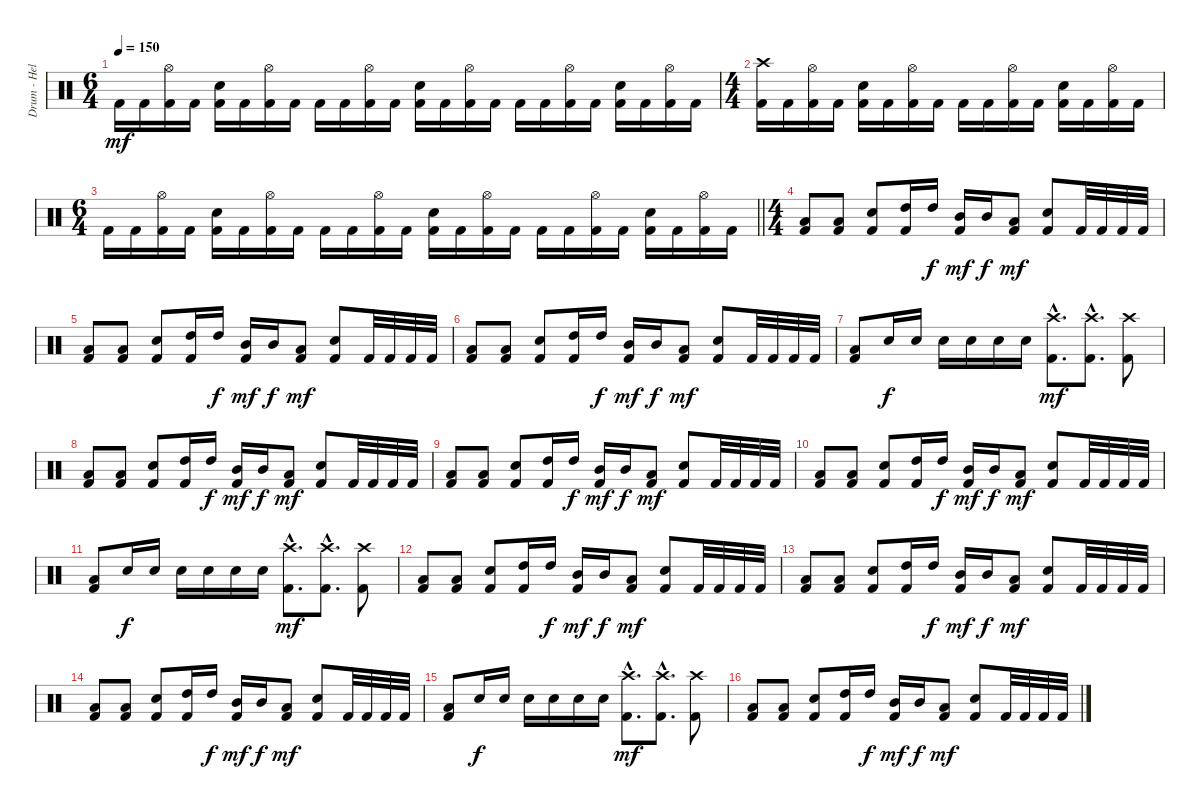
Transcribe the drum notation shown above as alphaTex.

\track ("Drum - Hellhammer" "Drum - Hel") {instrument percussion}
\staff {score}
\articulation defaults
\ts (6 4)
\tempo 150
\clef neutral
\ks c "Kick (hit) 2".16{dy mf} "Kick (hit) 2".16
("Hi-Hat (open)" "Kick (hit) 2").16 "Kick (hit) 2".16 ("Electric Snare (hit)" "Kick (hit) 2").16 "Kick (hit) 2".16 ("Hi-Hat (open)" "Kick (hit) 2").16 "Kick (hit) 2".16 "Kick (hit) 2".16 "Kick (hit) 2".16 ("Hi-Hat (open)" "Kick (hit) 2").16 "Kick (hit) 2".16 ("Electric Snare (hit)" "Kick (hit) 2").16 "Kick (hit) 2".16 ("Hi-Hat (open)" "Kick (hit) 2").16 "Kick (hit) 2".16 "Kick (hit) 2".16 "Kick (hit) 2".16 ("Hi-Hat (open)" "Kick (hit) 2").16 "Kick (hit) 2".16 ("Electric Snare (hit)" "Kick (hit) 2").16 "Kick (hit) 2".16 ("Hi-Hat (open)" "Kick (hit) 2").16 "Kick (hit) 2".16 |
\ts (4 4)
("Crash high (hit)" "Kick (hit) 2").16 "Kick (hit) 2".16 ("Hi-Hat (open)" "Kick (hit) 2").16 "Kick (hit) 2".16 ("Electric Snare (hit)" "Kick (hit) 2").16 "Kick (hit) 2".16 ("Hi-Hat (open)" "Kick (hit) 2").16 "Kick (hit) 2".16 "Kick (hit) 2".16 "Kick (hit) 2".16 ("Hi-Hat (open)" "Kick (hit) 2").16 "Kick (hit) 2".16 ("Electric Snare (hit)" "Kick (hit) 2").16 "Kick (hit) 2".16 ("Hi-Hat (open)" "Kick (hit) 2").16 "Kick (hit) 2".16 |
\ts (6 4)
\barLineRight lightlight "Kick (hit) 2".16 "Kick (hit) 2".16
("Hi-Hat (open)" "Kick (hit) 2").16 "Kick (hit) 2".16 ("Electric Snare (hit)" "Kick (hit) 2").16 "Kick (hit) 2".16 ("Hi-Hat (open)" "Kick (hit) 2").16 "Kick (hit) 2".16 "Kick (hit) 2".16 "Kick (hit) 2".16 ("Hi-Hat (open)" "Kick (hit) 2").16 "Kick (hit) 2".16 ("Electric Snare (hit)" "Kick (hit) 2").16 "Kick (hit) 2".16 ("Hi-Hat (open)" "Kick (hit) 2").16 "Kick (hit) 2".16 "Kick (hit) 2".16 "Kick (hit) 2".16 ("Hi-Hat (open)" "Kick (hit) 2").16 "Kick (hit) 2".16 ("Electric Snare (hit)" "Kick (hit) 2").16 "Kick (hit) 2".16 ("Hi-Hat (open)" "Kick (hit) 2").16 "Kick (hit) 2".16 |
\ts (4 4)
\section ("" "")
("Low Tom (hit)" "Kick (hit) 2").8 ("Low Tom (hit)" "Kick (hit) 2").8 ("Electric Snare (hit)" "Kick (hit) 2").8 ("High Tom (hit)" "Kick (hit) 2").16 "High Tom (hit)".16{dy f} ("Mid Tom (hit)" "Kick (hit) 2").16{dy mf} "Mid Tom (hit)".16{dy f} ("Low Tom (hit)" "Kick (hit) 2").8{dy mf} ("Electric Snare (hit)" "Kick (hit) 2").8 "Kick (hit) 2".32 "Kick (hit) 2".32 "Kick (hit) 2".32 "Kick (hit) 2".32 |
("Low Tom (hit)" "Kick (hit) 2").8 ("Low Tom (hit)" "Kick (hit) 2").8 ("Electric Snare (hit)" "Kick (hit) 2").8 ("High Tom (hit)" "Kick (hit) 2").16 "High Tom (hit)".16{dy f} ("Mid Tom (hit)" "Kick (hit) 2").16{dy mf} "Mid Tom (hit)".16{dy f} ("Low Tom (hit)" "Kick (hit) 2").8{dy mf} ("Electric Snare (hit)" "Kick (hit) 2").8 "Kick (hit) 2".32 "Kick (hit) 2".32 "Kick (hit) 2".32 "Kick (hit) 2".32 |
("Low Tom (hit)" "Kick (hit) 2").8 ("Low Tom (hit)" "Kick (hit) 2").8 ("Electric Snare (hit)" "Kick (hit) 2").8 ("High Tom (hit)" "Kick (hit) 2").16 "High Tom (hit)".16{dy f} ("Mid Tom (hit)" "Kick (hit) 2").16{dy mf} "Mid Tom (hit)".16{dy f} ("Low Tom (hit)" "Kick (hit) 2").8{dy mf} ("Electric Snare (hit)" "Kick (hit) 2").8 "Kick (hit) 2".32 "Kick (hit) 2".32 "Kick (hit) 2".32 "Kick (hit) 2".32 |
("Low Tom (hit)" "Kick (hit) 2").8 "Electric Snare (hit)".16{dy f} "Electric Snare (hit)".16 "Electric Snare (hit)".16 "Electric Snare (hit)".16 "Electric Snare (hit)".16 "Electric Snare (hit)".16 ("Crash high (hit)"{hac} "Kick (hit) 2"{hac}).8{d dy mf} ("Crash high (hit)"{hac} "Kick (hit) 2"{hac}).8{d} ("Crash high (hit)" "Kick (hit) 2").8 |
("Low Tom (hit)" "Kick (hit) 2").8 ("Low Tom (hit)" "Kick (hit) 2").8 ("Electric Snare (hit)" "Kick (hit) 2").8 ("High Tom (hit)" "Kick (hit) 2").16 "High Tom (hit)".16{dy f} ("Mid Tom (hit)" "Kick (hit) 2").16{dy mf} "Mid Tom (hit)".16{dy f} ("Low Tom (hit)" "Kick (hit) 2").8{dy mf} ("Electric Snare (hit)" "Kick (hit) 2").8 "Kick (hit) 2".32 "Kick (hit) 2".32 "Kick (hit) 2".32 "Kick (hit) 2".32 |
("Low Tom (hit)" "Kick (hit) 2").8 ("Low Tom (hit)" "Kick (hit) 2").8 ("Electric Snare (hit)" "Kick (hit) 2").8 ("High Tom (hit)" "Kick (hit) 2").16 "High Tom (hit)".16{dy f} ("Mid Tom (hit)" "Kick (hit) 2").16{dy mf} "Mid Tom (hit)".16{dy f} ("Low Tom (hit)" "Kick (hit) 2").8{dy mf} ("Electric Snare (hit)" "Kick (hit) 2").8 "Kick (hit) 2".32 "Kick (hit) 2".32 "Kick (hit) 2".32 "Kick (hit) 2".32 |
("Low Tom (hit)" "Kick (hit) 2").8 ("Low Tom (hit)" "Kick (hit) 2").8 ("Electric Snare (hit)" "Kick (hit) 2").8 ("High Tom (hit)" "Kick (hit) 2").16 "High Tom (hit)".16{dy f} ("Mid Tom (hit)" "Kick (hit) 2").16{dy mf} "Mid Tom (hit)".16{dy f} ("Low Tom (hit)" "Kick (hit) 2").8{dy mf} ("Electric Snare (hit)" "Kick (hit) 2").8 "Kick (hit) 2".32 "Kick (hit) 2".32 "Kick (hit) 2".32 "Kick (hit) 2".32 |
("Low Tom (hit)" "Kick (hit) 2").8 "Electric Snare (hit)".16{dy f} "Electric Snare (hit)".16 "Electric Snare (hit)".16 "Electric Snare (hit)".16 "Electric Snare (hit)".16 "Electric Snare (hit)".16 ("Crash high (hit)"{hac} "Kick (hit) 2"{hac}).8{d dy mf} ("Crash high (hit)"{hac} "Kick (hit) 2"{hac}).8{d} ("Crash high (hit)" "Kick (hit) 2").8 |
("Low Tom (hit)" "Kick (hit) 2").8 ("Low Tom (hit)" "Kick (hit) 2").8 ("Electric Snare (hit)" "Kick (hit) 2").8 ("High Tom (hit)" "Kick (hit) 2").16 "High Tom (hit)".16{dy f} ("Mid Tom (hit)" "Kick (hit) 2").16{dy mf} "Mid Tom (hit)".16{dy f} ("Low Tom (hit)" "Kick (hit) 2").8{dy mf} ("Electric Snare (hit)" "Kick (hit) 2").8 "Kick (hit) 2".32 "Kick (hit) 2".32 "Kick (hit) 2".32 "Kick (hit) 2".32 |
("Low Tom (hit)" "Kick (hit) 2").8 ("Low Tom (hit)" "Kick (hit) 2").8 ("Electric Snare (hit)" "Kick (hit) 2").8 ("High Tom (hit)" "Kick (hit) 2").16 "High Tom (hit)".16{dy f} ("Mid Tom (hit)" "Kick (hit) 2").16{dy mf} "Mid Tom (hit)".16{dy f} ("Low Tom (hit)" "Kick (hit) 2").8{dy mf} ("Electric Snare (hit)" "Kick (hit) 2").8 "Kick (hit) 2".32 "Kick (hit) 2".32 "Kick (hit) 2".32 "Kick (hit) 2".32 |
("Low Tom (hit)" "Kick (hit) 2").8 ("Low Tom (hit)" "Kick (hit) 2").8 ("Electric Snare (hit)" "Kick (hit) 2").8 ("High Tom (hit)" "Kick (hit) 2").16 "High Tom (hit)".16{dy f} ("Mid Tom (hit)" "Kick (hit) 2").16{dy mf} "Mid Tom (hit)".16{dy f} ("Low Tom (hit)" "Kick (hit) 2").8{dy mf} ("Electric Snare (hit)" "Kick (hit) 2").8 "Kick (hit) 2".32 "Kick (hit) 2".32 "Kick (hit) 2".32 "Kick (hit) 2".32 |
("Low Tom (hit)" "Kick (hit) 2").8 "Electric Snare (hit)".16{dy f} "Electric Snare (hit)".16 "Electric Snare (hit)".16 "Electric Snare (hit)".16 "Electric Snare (hit)".16 "Electric Snare (hit)".16 ("Crash high (hit)"{hac} "Kick (hit) 2"{hac}).8{d dy mf} ("Crash high (hit)"{hac} "Kick (hit) 2"{hac}).8{d} ("Crash high (hit)" "Kick (hit) 2").8 |
("Low Tom (hit)" "Kick (hit) 2").8 ("Low Tom (hit)" "Kick (hit) 2").8 ("Electric Snare (hit)" "Kick (hit) 2").8 ("High Tom (hit)" "Kick (hit) 2").16 "High Tom (hit)".16{dy f} ("Mid Tom (hit)" "Kick (hit) 2").16{dy mf} "Mid Tom (hit)".16{dy f} ("Low Tom (hit)" "Kick (hit) 2").8{dy mf} ("Electric Snare (hit)" "Kick (hit) 2").8 "Kick (hit) 2".32 "Kick (hit) 2".32 "Kick (hit) 2".32 "Kick (hit) 2".32
